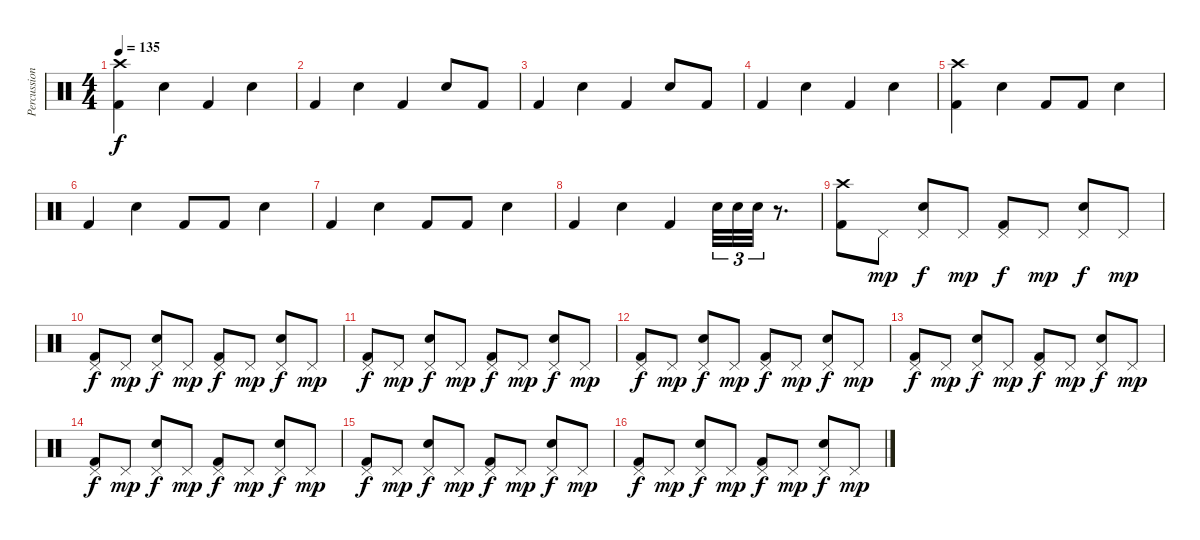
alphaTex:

\track ("Percussion" "Percussion") {instrument percussion}
\staff {score}
\articulation defaults
\ts (4 4)
\tempo 135
\clef neutral
\ks c
("Crash high (hit)" "Kick (hit) 2").4{dy f} "Electric Snare (hit)".4 "Kick (hit) 2".4 "Electric Snare (hit)".4 |
"Kick (hit) 2".4 "Electric Snare (hit)".4 "Kick (hit) 2".4 "Electric Snare (hit)".8 "Kick (hit) 2".8 |
"Kick (hit) 2".4 "Electric Snare (hit)".4 "Kick (hit) 2".4 "Electric Snare (hit)".8 "Kick (hit) 2".8 |
"Kick (hit) 2".4 "Electric Snare (hit)".4 "Kick (hit) 2".4 "Electric Snare (hit)".4 |
("Crash high (hit)" "Kick (hit) 2").4 "Electric Snare (hit)".4 "Kick (hit) 2".8 "Kick (hit) 2".8 "Electric Snare (hit)".4 |
"Kick (hit) 2".4 "Electric Snare (hit)".4 "Kick (hit) 2".8 "Kick (hit) 2".8 "Electric Snare (hit)".4 |
"Kick (hit) 2".4 "Electric Snare (hit)".4 "Kick (hit) 2".8 "Kick (hit) 2".8 "Electric Snare (hit)".4 |
"Kick (hit) 2".4 "Electric Snare (hit)".4 "Kick (hit) 2".4 "Electric Snare (hit)".32{tu (3 2)} "Electric Snare (hit)".32{tu (3 2)} "Electric Snare (hit)".32{tu (3 2)} r.8{d} |
("Crash high (hit)" "Kick (hit) 2").8 "Pedal Hi-Hat (hit)".8{dy mp} ("Pedal Hi-Hat (hit)" "Electric Snare (hit)").8{dy f} "Pedal Hi-Hat (hit)".8{dy mp} ("Pedal Hi-Hat (hit)" "Kick (hit) 2").8{dy f} "Pedal Hi-Hat (hit)".8{dy mp} ("Pedal Hi-Hat (hit)" "Electric Snare (hit)").8{dy f} "Pedal Hi-Hat (hit)".8{dy mp} |
("Pedal Hi-Hat (hit)" "Kick (hit) 2").8{dy f} "Pedal Hi-Hat (hit)".8{dy mp} ("Pedal Hi-Hat (hit)" "Electric Snare (hit)").8{dy f} "Pedal Hi-Hat (hit)".8{dy mp} ("Pedal Hi-Hat (hit)" "Kick (hit) 2").8{dy f} "Pedal Hi-Hat (hit)".8{dy mp} ("Pedal Hi-Hat (hit)" "Electric Snare (hit)").8{dy f} "Pedal Hi-Hat (hit)".8{dy mp} |
("Pedal Hi-Hat (hit)" "Kick (hit) 2").8{dy f} "Pedal Hi-Hat (hit)".8{dy mp} ("Pedal Hi-Hat (hit)" "Electric Snare (hit)").8{dy f} "Pedal Hi-Hat (hit)".8{dy mp} ("Pedal Hi-Hat (hit)" "Kick (hit) 2").8{dy f} "Pedal Hi-Hat (hit)".8{dy mp} ("Pedal Hi-Hat (hit)" "Electric Snare (hit)").8{dy f} "Pedal Hi-Hat (hit)".8{dy mp} |
("Pedal Hi-Hat (hit)" "Kick (hit) 2").8{dy f} "Pedal Hi-Hat (hit)".8{dy mp} ("Pedal Hi-Hat (hit)" "Electric Snare (hit)").8{dy f} "Pedal Hi-Hat (hit)".8{dy mp} ("Pedal Hi-Hat (hit)" "Kick (hit) 2").8{dy f} "Pedal Hi-Hat (hit)".8{dy mp} ("Pedal Hi-Hat (hit)" "Electric Snare (hit)").8{dy f} "Pedal Hi-Hat (hit)".8{dy mp} |
("Pedal Hi-Hat (hit)" "Kick (hit) 2").8{dy f} "Pedal Hi-Hat (hit)".8{dy mp} ("Pedal Hi-Hat (hit)" "Electric Snare (hit)").8{dy f} "Pedal Hi-Hat (hit)".8{dy mp} ("Pedal Hi-Hat (hit)" "Kick (hit) 2").8{dy f} "Pedal Hi-Hat (hit)".8{dy mp} ("Pedal Hi-Hat (hit)" "Electric Snare (hit)").8{dy f} "Pedal Hi-Hat (hit)".8{dy mp} |
("Pedal Hi-Hat (hit)" "Kick (hit) 2").8{dy f} "Pedal Hi-Hat (hit)".8{dy mp} ("Pedal Hi-Hat (hit)" "Electric Snare (hit)").8{dy f} "Pedal Hi-Hat (hit)".8{dy mp} ("Pedal Hi-Hat (hit)" "Kick (hit) 2").8{dy f} "Pedal Hi-Hat (hit)".8{dy mp} ("Pedal Hi-Hat (hit)" "Electric Snare (hit)").8{dy f} "Pedal Hi-Hat (hit)".8{dy mp} |
("Pedal Hi-Hat (hit)" "Kick (hit) 2").8{dy f} "Pedal Hi-Hat (hit)".8{dy mp} ("Pedal Hi-Hat (hit)" "Electric Snare (hit)").8{dy f} "Pedal Hi-Hat (hit)".8{dy mp} ("Pedal Hi-Hat (hit)" "Kick (hit) 2").8{dy f} "Pedal Hi-Hat (hit)".8{dy mp} ("Pedal Hi-Hat (hit)" "Electric Snare (hit)").8{dy f} "Pedal Hi-Hat (hit)".8{dy mp} |
("Pedal Hi-Hat (hit)" "Kick (hit) 2").8{dy f} "Pedal Hi-Hat (hit)".8{dy mp} ("Pedal Hi-Hat (hit)" "Electric Snare (hit)").8{dy f} "Pedal Hi-Hat (hit)".8{dy mp} ("Pedal Hi-Hat (hit)" "Kick (hit) 2").8{dy f} "Pedal Hi-Hat (hit)".8{dy mp} ("Pedal Hi-Hat (hit)" "Electric Snare (hit)").8{dy f} "Pedal Hi-Hat (hit)".8{dy mp}
